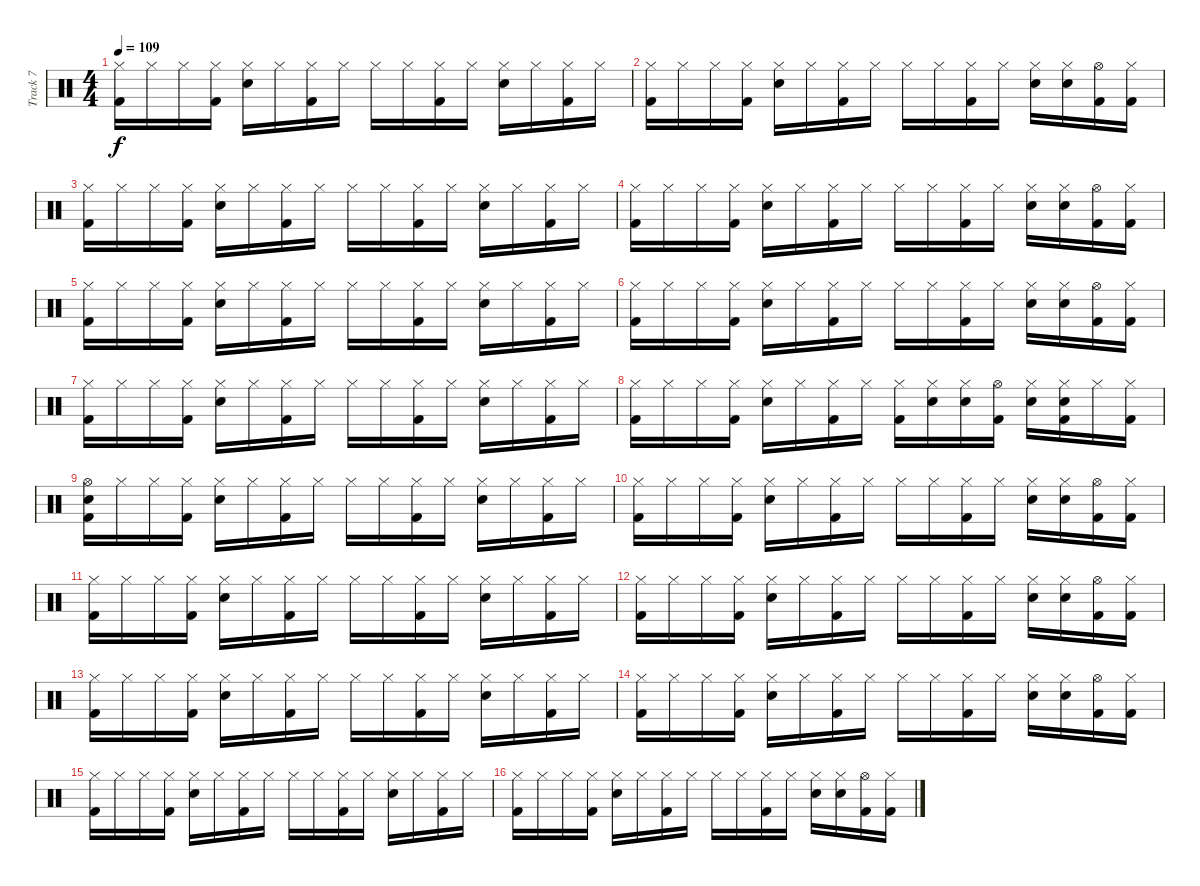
\track ("Track 7" "Track 7") {instrument percussion}
\staff {score}
\articulation defaults
\ts (4 4)
\tempo 109
\clef neutral
\ks c
("Hi-Hat (closed)" "Kick (hit) 2").16{dy f} "Hi-Hat (closed)".16 "Hi-Hat (closed)".16 ("Hi-Hat (closed)" "Kick (hit) 2").16 ("Hi-Hat (closed)" "Snare (hit) 2").16 "Hi-Hat (closed)".16 ("Hi-Hat (closed)" "Kick (hit) 2").16 "Hi-Hat (closed)".16 "Hi-Hat (closed)".16 "Hi-Hat (closed)".16 ("Hi-Hat (closed)" "Kick (hit) 2").16 "Hi-Hat (closed)".16 ("Hi-Hat (closed)" "Snare (hit) 2").16 "Hi-Hat (closed)".16 ("Hi-Hat (closed)" "Kick (hit) 2").16 "Hi-Hat (closed)".16 |
("Hi-Hat (closed)" "Kick (hit) 2").16 "Hi-Hat (closed)".16 "Hi-Hat (closed)".16 ("Hi-Hat (closed)" "Kick (hit) 2").16 ("Hi-Hat (closed)" "Snare (hit) 2").16 "Hi-Hat (closed)".16 ("Hi-Hat (closed)" "Kick (hit) 2").16 "Hi-Hat (closed)".16 "Hi-Hat (closed)".16 "Hi-Hat (closed)".16 ("Hi-Hat (closed)" "Kick (hit) 2").16 "Hi-Hat (closed)".16 ("Hi-Hat (closed)" "Snare (hit) 2").16 ("Hi-Hat (closed)" "Snare (hit) 2").16 ("Hi-Hat (open)" "Kick (hit) 2").16 ("Hi-Hat (closed)" "Kick (hit) 2").16 |
("Hi-Hat (closed)" "Kick (hit) 2").16 "Hi-Hat (closed)".16 "Hi-Hat (closed)".16 ("Hi-Hat (closed)" "Kick (hit) 2").16 ("Hi-Hat (closed)" "Snare (hit) 2").16 "Hi-Hat (closed)".16 ("Hi-Hat (closed)" "Kick (hit) 2").16 "Hi-Hat (closed)".16 "Hi-Hat (closed)".16 "Hi-Hat (closed)".16 ("Hi-Hat (closed)" "Kick (hit) 2").16 "Hi-Hat (closed)".16 ("Hi-Hat (closed)" "Snare (hit) 2").16 "Hi-Hat (closed)".16 ("Hi-Hat (closed)" "Kick (hit) 2").16 "Hi-Hat (closed)".16 |
("Hi-Hat (closed)" "Kick (hit) 2").16 "Hi-Hat (closed)".16 "Hi-Hat (closed)".16 ("Hi-Hat (closed)" "Kick (hit) 2").16 ("Hi-Hat (closed)" "Snare (hit) 2").16 "Hi-Hat (closed)".16 ("Hi-Hat (closed)" "Kick (hit) 2").16 "Hi-Hat (closed)".16 "Hi-Hat (closed)".16 "Hi-Hat (closed)".16 ("Hi-Hat (closed)" "Kick (hit) 2").16 "Hi-Hat (closed)".16 ("Hi-Hat (closed)" "Snare (hit) 2").16 ("Hi-Hat (closed)" "Snare (hit) 2").16 ("Hi-Hat (open)" "Kick (hit) 2").16 ("Hi-Hat (closed)" "Kick (hit) 2").16 |
("Hi-Hat (closed)" "Kick (hit) 2").16 "Hi-Hat (closed)".16 "Hi-Hat (closed)".16 ("Hi-Hat (closed)" "Kick (hit) 2").16 ("Hi-Hat (closed)" "Snare (hit) 2").16 "Hi-Hat (closed)".16 ("Hi-Hat (closed)" "Kick (hit) 2").16 "Hi-Hat (closed)".16 "Hi-Hat (closed)".16 "Hi-Hat (closed)".16 ("Hi-Hat (closed)" "Kick (hit) 2").16 "Hi-Hat (closed)".16 ("Hi-Hat (closed)" "Snare (hit) 2").16 "Hi-Hat (closed)".16 ("Hi-Hat (closed)" "Kick (hit) 2").16 "Hi-Hat (closed)".16 |
("Hi-Hat (closed)" "Kick (hit) 2").16 "Hi-Hat (closed)".16 "Hi-Hat (closed)".16 ("Hi-Hat (closed)" "Kick (hit) 2").16 ("Hi-Hat (closed)" "Snare (hit) 2").16 "Hi-Hat (closed)".16 ("Hi-Hat (closed)" "Kick (hit) 2").16 "Hi-Hat (closed)".16 "Hi-Hat (closed)".16 "Hi-Hat (closed)".16 ("Hi-Hat (closed)" "Kick (hit) 2").16 "Hi-Hat (closed)".16 ("Hi-Hat (closed)" "Snare (hit) 2").16 ("Hi-Hat (closed)" "Snare (hit) 2").16 ("Hi-Hat (open)" "Kick (hit) 2").16 ("Hi-Hat (closed)" "Kick (hit) 2").16 |
("Hi-Hat (closed)" "Kick (hit) 2").16 "Hi-Hat (closed)".16 "Hi-Hat (closed)".16 ("Hi-Hat (closed)" "Kick (hit) 2").16 ("Hi-Hat (closed)" "Snare (hit) 2").16 "Hi-Hat (closed)".16 ("Hi-Hat (closed)" "Kick (hit) 2").16 "Hi-Hat (closed)".16 "Hi-Hat (closed)".16 "Hi-Hat (closed)".16 ("Hi-Hat (closed)" "Kick (hit) 2").16 "Hi-Hat (closed)".16 ("Hi-Hat (closed)" "Snare (hit) 2").16 "Hi-Hat (closed)".16 ("Hi-Hat (closed)" "Kick (hit) 2").16 "Hi-Hat (closed)".16 |
("Hi-Hat (closed)" "Kick (hit) 2").16 "Hi-Hat (closed)".16 "Hi-Hat (closed)".16 ("Hi-Hat (closed)" "Kick (hit) 2").16 ("Hi-Hat (closed)" "Snare (hit) 2").16 "Hi-Hat (closed)".16 ("Hi-Hat (closed)" "Kick (hit) 2").16 "Hi-Hat (closed)".16 ("Hi-Hat (closed)" "Kick (hit) 2").16 ("Hi-Hat (closed)" "Snare (hit) 2").16 ("Hi-Hat (closed)" "Snare (hit) 2").16 ("Hi-Hat (open)" "Kick (hit) 2").16 ("Hi-Hat (closed)" "Snare (hit) 2").16 ("Hi-Hat (closed)" "Snare (hit) 2" "Kick (hit) 2").16 "Hi-Hat (closed)".16 ("Hi-Hat (closed)" "Kick (hit) 2").16 |
("Hi-Hat (open)" "Snare (hit) 2" "Kick (hit) 2").16 "Hi-Hat (closed)".16 "Hi-Hat (closed)".16 ("Hi-Hat (closed)" "Kick (hit) 2").16 ("Hi-Hat (closed)" "Snare (hit) 2").16 "Hi-Hat (closed)".16 ("Hi-Hat (closed)" "Kick (hit) 2").16 "Hi-Hat (closed)".16 "Hi-Hat (closed)".16 "Hi-Hat (closed)".16 ("Hi-Hat (closed)" "Kick (hit) 2").16 "Hi-Hat (closed)".16 ("Hi-Hat (closed)" "Snare (hit) 2").16 "Hi-Hat (closed)".16 ("Hi-Hat (closed)" "Kick (hit) 2").16 "Hi-Hat (closed)".16 |
("Hi-Hat (closed)" "Kick (hit) 2").16 "Hi-Hat (closed)".16 "Hi-Hat (closed)".16 ("Hi-Hat (closed)" "Kick (hit) 2").16 ("Hi-Hat (closed)" "Snare (hit) 2").16 "Hi-Hat (closed)".16 ("Hi-Hat (closed)" "Kick (hit) 2").16 "Hi-Hat (closed)".16 "Hi-Hat (closed)".16 "Hi-Hat (closed)".16 ("Hi-Hat (closed)" "Kick (hit) 2").16 "Hi-Hat (closed)".16 ("Hi-Hat (closed)" "Snare (hit) 2").16 ("Hi-Hat (closed)" "Snare (hit) 2").16 ("Hi-Hat (open)" "Kick (hit) 2").16 ("Hi-Hat (closed)" "Kick (hit) 2").16 |
("Hi-Hat (closed)" "Kick (hit) 2").16 "Hi-Hat (closed)".16 "Hi-Hat (closed)".16 ("Hi-Hat (closed)" "Kick (hit) 2").16 ("Hi-Hat (closed)" "Snare (hit) 2").16 "Hi-Hat (closed)".16 ("Hi-Hat (closed)" "Kick (hit) 2").16 "Hi-Hat (closed)".16 "Hi-Hat (closed)".16 "Hi-Hat (closed)".16 ("Hi-Hat (closed)" "Kick (hit) 2").16 "Hi-Hat (closed)".16 ("Hi-Hat (closed)" "Snare (hit) 2").16 "Hi-Hat (closed)".16 ("Hi-Hat (closed)" "Kick (hit) 2").16 "Hi-Hat (closed)".16 |
("Hi-Hat (closed)" "Kick (hit) 2").16 "Hi-Hat (closed)".16 "Hi-Hat (closed)".16 ("Hi-Hat (closed)" "Kick (hit) 2").16 ("Hi-Hat (closed)" "Snare (hit) 2").16 "Hi-Hat (closed)".16 ("Hi-Hat (closed)" "Kick (hit) 2").16 "Hi-Hat (closed)".16 "Hi-Hat (closed)".16 "Hi-Hat (closed)".16 ("Hi-Hat (closed)" "Kick (hit) 2").16 "Hi-Hat (closed)".16 ("Hi-Hat (closed)" "Snare (hit) 2").16 ("Hi-Hat (closed)" "Snare (hit) 2").16 ("Hi-Hat (open)" "Kick (hit) 2").16 ("Hi-Hat (closed)" "Kick (hit) 2").16 |
("Hi-Hat (closed)" "Kick (hit) 2").16 "Hi-Hat (closed)".16 "Hi-Hat (closed)".16 ("Hi-Hat (closed)" "Kick (hit) 2").16 ("Hi-Hat (closed)" "Snare (hit) 2").16 "Hi-Hat (closed)".16 ("Hi-Hat (closed)" "Kick (hit) 2").16 "Hi-Hat (closed)".16 "Hi-Hat (closed)".16 "Hi-Hat (closed)".16 ("Hi-Hat (closed)" "Kick (hit) 2").16 "Hi-Hat (closed)".16 ("Hi-Hat (closed)" "Snare (hit) 2").16 "Hi-Hat (closed)".16 ("Hi-Hat (closed)" "Kick (hit) 2").16 "Hi-Hat (closed)".16 |
("Hi-Hat (closed)" "Kick (hit) 2").16 "Hi-Hat (closed)".16 "Hi-Hat (closed)".16 ("Hi-Hat (closed)" "Kick (hit) 2").16 ("Hi-Hat (closed)" "Snare (hit) 2").16 "Hi-Hat (closed)".16 ("Hi-Hat (closed)" "Kick (hit) 2").16 "Hi-Hat (closed)".16 "Hi-Hat (closed)".16 "Hi-Hat (closed)".16 ("Hi-Hat (closed)" "Kick (hit) 2").16 "Hi-Hat (closed)".16 ("Hi-Hat (closed)" "Snare (hit) 2").16 ("Hi-Hat (closed)" "Snare (hit) 2").16 ("Hi-Hat (open)" "Kick (hit) 2").16 ("Hi-Hat (closed)" "Kick (hit) 2").16 |
("Hi-Hat (closed)" "Kick (hit) 2").16 "Hi-Hat (closed)".16 "Hi-Hat (closed)".16 ("Hi-Hat (closed)" "Kick (hit) 2").16 ("Hi-Hat (closed)" "Snare (hit) 2").16 "Hi-Hat (closed)".16 ("Hi-Hat (closed)" "Kick (hit) 2").16 "Hi-Hat (closed)".16 "Hi-Hat (closed)".16 "Hi-Hat (closed)".16 ("Hi-Hat (closed)" "Kick (hit) 2").16 "Hi-Hat (closed)".16 ("Hi-Hat (closed)" "Snare (hit) 2").16 "Hi-Hat (closed)".16 ("Hi-Hat (closed)" "Kick (hit) 2").16 "Hi-Hat (closed)".16 |
("Hi-Hat (closed)" "Kick (hit) 2").16 "Hi-Hat (closed)".16 "Hi-Hat (closed)".16 ("Hi-Hat (closed)" "Kick (hit) 2").16 ("Hi-Hat (closed)" "Snare (hit) 2").16 "Hi-Hat (closed)".16 ("Hi-Hat (closed)" "Kick (hit) 2").16 "Hi-Hat (closed)".16 "Hi-Hat (closed)".16 "Hi-Hat (closed)".16 ("Hi-Hat (closed)" "Kick (hit) 2").16 "Hi-Hat (closed)".16 ("Hi-Hat (closed)" "Snare (hit) 2").16 ("Hi-Hat (closed)" "Snare (hit) 2").16 ("Hi-Hat (open)" "Kick (hit) 2").16 ("Hi-Hat (closed)" "Kick (hit) 2").16
